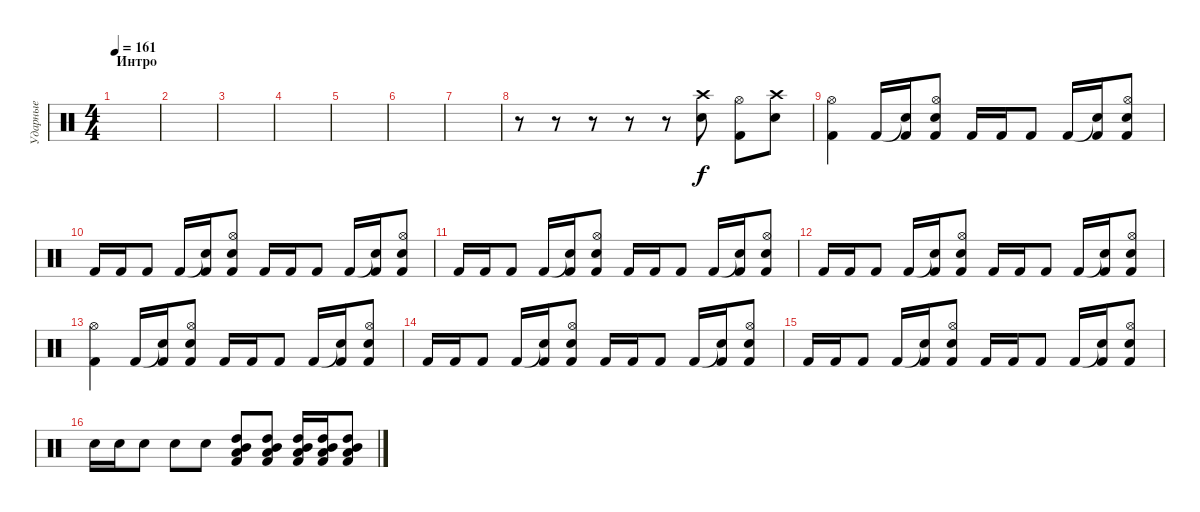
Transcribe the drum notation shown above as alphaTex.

\track ("Ударные" "Ударные") {instrument percussion}
\staff {score}
\articulation defaults
\ts (4 4)
\section ("" "Интро")
\tempo 161
\clef neutral
\ks c
|
|
|
|
|
|
|
r.8 r.8 r.8 r.8 r.8 ("Crash high (hit)" "Snare (hit) 2").8 ("Hi-Hat (open)" "Kick (hit) 2").8 ("Crash high (hit)" "Snare (hit) 2").8 |
("Hi-Hat (open)" "Kick (hit) 2").4 "Kick (hit) 2".16 ("Snare (hit)"{t} "Kick (hit) 2").16 ("Hi-Hat (open)" "Snare (hit) 2" "Kick (hit) 2").8 "Kick (hit) 2".16 "Kick (hit) 2".16 "Kick (hit) 2".8 "Kick (hit) 2".16 ("Snare (hit)"{t} "Kick (hit) 2").16 ("Hi-Hat (open)" "Snare (hit) 2" "Kick (hit) 2").8 |
"Kick (hit) 2".16 "Kick (hit) 2".16 "Kick (hit) 2".8 "Kick (hit) 2".16 ("Snare (hit)"{t} "Kick (hit) 2").16 ("Hi-Hat (open)" "Snare (hit) 2" "Kick (hit) 2").8 "Kick (hit) 2".16 "Kick (hit) 2".16 "Kick (hit) 2".8 "Kick (hit) 2".16 ("Snare (hit)"{t} "Kick (hit) 2").16 ("Hi-Hat (open)" "Snare (hit) 2" "Kick (hit) 2").8 |
"Kick (hit) 2".16 "Kick (hit) 2".16 "Kick (hit) 2".8 "Kick (hit) 2".16 ("Snare (hit)"{t} "Kick (hit) 2").16 ("Hi-Hat (open)" "Snare (hit) 2" "Kick (hit) 2").8 "Kick (hit) 2".16 "Kick (hit) 2".16 "Kick (hit) 2".8 "Kick (hit) 2".16 ("Snare (hit)"{t} "Kick (hit) 2").16 ("Hi-Hat (open)" "Snare (hit) 2" "Kick (hit) 2").8 |
"Kick (hit) 2".16 "Kick (hit) 2".16 "Kick (hit) 2".8 "Kick (hit) 2".16 ("Snare (hit)"{t} "Kick (hit) 2").16 ("Hi-Hat (open)" "Snare (hit) 2" "Kick (hit) 2").8 "Kick (hit) 2".16 "Kick (hit) 2".16 "Kick (hit) 2".8 "Kick (hit) 2".16 ("Snare (hit)"{t} "Kick (hit) 2").16 ("Hi-Hat (open)" "Snare (hit) 2" "Kick (hit) 2").8 |
("Hi-Hat (open)" "Kick (hit) 2").4 "Kick (hit) 2".16 ("Snare (hit)"{t} "Kick (hit) 2").16 ("Hi-Hat (open)" "Snare (hit) 2" "Kick (hit) 2").8 "Kick (hit) 2".16 "Kick (hit) 2".16 "Kick (hit) 2".8 "Kick (hit) 2".16 ("Snare (hit)"{t} "Kick (hit) 2").16 ("Hi-Hat (open)" "Snare (hit) 2" "Kick (hit) 2").8 |
"Kick (hit) 2".16 "Kick (hit) 2".16 "Kick (hit) 2".8 "Kick (hit) 2".16 ("Snare (hit)"{t} "Kick (hit) 2").16 ("Hi-Hat (open)" "Snare (hit) 2" "Kick (hit) 2").8 "Kick (hit) 2".16 "Kick (hit) 2".16 "Kick (hit) 2".8 "Kick (hit) 2".16 ("Snare (hit)"{t} "Kick (hit) 2").16 ("Hi-Hat (open)" "Snare (hit) 2" "Kick (hit) 2").8 |
"Kick (hit) 2".16 "Kick (hit) 2".16 "Kick (hit) 2".8 "Kick (hit) 2".16 ("Snare (hit)"{t} "Kick (hit) 2").16 ("Hi-Hat (open)" "Snare (hit) 2" "Kick (hit) 2").8 "Kick (hit) 2".16 "Kick (hit) 2".16 "Kick (hit) 2".8 "Kick (hit) 2".16 ("Snare (hit)"{t} "Kick (hit) 2").16 ("Hi-Hat (open)" "Snare (hit) 2" "Kick (hit) 2").8 |
"Snare (hit) 2".16 "Snare (hit) 2".16 "Snare (hit) 2".8 "Snare (hit) 2".8 "Snare (hit) 2".8 ("Mid Tom (hit)" "Low Tom (hit)" "Kick (hit) 2" "High Tom (hit)").8 ("Mid Tom (hit)" "Low Tom (hit)" "Kick (hit) 2" "High Tom (hit)").8 ("Mid Tom (hit)" "Low Tom (hit)" "Kick (hit) 2" "High Tom (hit)").16 ("Mid Tom (hit)" "Low Tom (hit)" "Kick (hit) 2" "High Tom (hit)").16 ("Mid Tom (hit)" "Low Tom (hit)" "Kick (hit) 2" "High Tom (hit)").8
